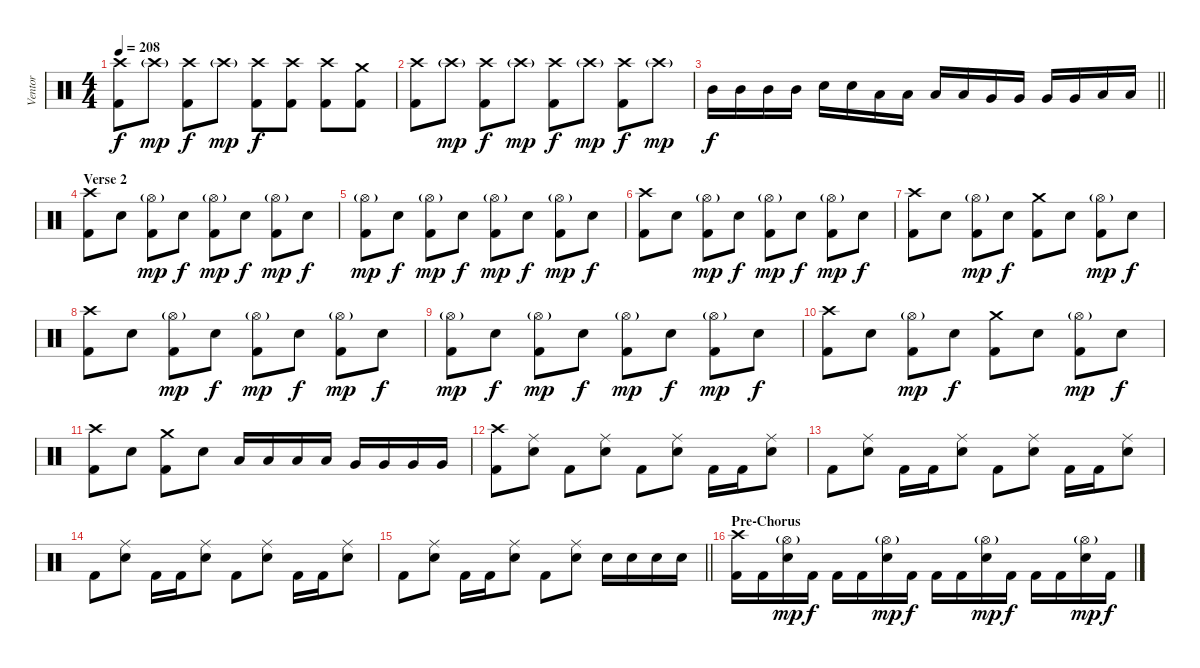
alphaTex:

\track ("Ventor" "Ventor") {instrument percussion}
\staff {score}
\articulation defaults
\ts (4 4)
\tempo 208
\clef neutral
\ks c
("Crash high (hit)" "Kick (hit) 2").8{dy f} "Crash high (hit)"{g}.8{dy mp} ("Crash high (hit)" "Kick (hit) 2").8{dy f} "Crash high (hit)"{g}.8{dy mp} ("Crash high (hit)" "Kick (hit) 2").8{dy f} ("Crash high (hit)" "Kick (hit) 2").8 ("Crash high (hit)" "Kick (hit) 2").8 ("Crash medium (hit)" "Kick (hit) 2").8 |
("Crash high (hit)" "Kick (hit) 2").8 "Crash high (hit)"{g}.8{dy mp} ("Crash high (hit)" "Kick (hit) 2").8{dy f} "Crash high (hit)"{g}.8{dy mp} ("Crash high (hit)" "Kick (hit) 2").8{dy f} "Crash high (hit)"{g}.8{dy mp} ("Crash high (hit)" "Kick (hit) 2").8{dy f} "Crash high (hit)"{g}.8{dy mp} |
\barLineRight lightlight "Mid Tom (hit)".16{dy f} "Mid Tom (hit)".16 "Mid Tom (hit)".16 "Mid Tom (hit)".16 "Electric Snare (hit)".16 "Electric Snare (hit)".16 "Low Tom (hit)".16 "Low Tom (hit)".16 "Low Tom (hit)".16 "Low Tom (hit)".16 "Very Low Tom (hit)".16 "Very Low Tom (hit)".16 "Very Low Tom (hit)".16 "Very Low Tom (hit)".16 "Low Floor Tom (hit)".16 "Low Floor Tom (hit)".16
|
\section ("" "Verse 2")
("Crash high (hit)" "Kick (hit) 2").8 "Electric Snare (hit)".8 ("Hi-Hat (open)"{g} "Kick (hit) 2").8{dy mp} "Electric Snare (hit)".8{dy f} ("Hi-Hat (open)"{g} "Kick (hit) 2").8{dy mp} "Electric Snare (hit)".8{dy f} ("Hi-Hat (open)"{g} "Kick (hit) 2").8{dy mp} "Electric Snare (hit)".8{dy f} |
("Hi-Hat (open)"{g} "Kick (hit) 2").8{dy mp} "Electric Snare (hit)".8{dy f} ("Hi-Hat (open)"{g} "Kick (hit) 2").8{dy mp} "Electric Snare (hit)".8{dy f} ("Hi-Hat (open)"{g} "Kick (hit) 2").8{dy mp} "Electric Snare (hit)".8{dy f} ("Hi-Hat (open)"{g} "Kick (hit) 2").8{dy mp} "Electric Snare (hit)".8{dy f} |
("Crash high (hit)" "Kick (hit) 2").8 "Electric Snare (hit)".8 ("Hi-Hat (open)"{g} "Kick (hit) 2").8{dy mp} "Electric Snare (hit)".8{dy f} ("Hi-Hat (open)"{g} "Kick (hit) 2").8{dy mp} "Electric Snare (hit)".8{dy f} ("Hi-Hat (open)"{g} "Kick (hit) 2").8{dy mp} "Electric Snare (hit)".8{dy f} |
("Crash high (hit)" "Kick (hit) 2").8 "Electric Snare (hit)".8 ("Hi-Hat (open)"{g} "Kick (hit) 2").8{dy mp} "Electric Snare (hit)".8{dy f} ("Crash medium (hit)" "Kick (hit) 2").8 "Electric Snare (hit)".8 ("Hi-Hat (open)"{g} "Kick (hit) 2").8{dy mp} "Electric Snare (hit)".8{dy f} |
("Crash high (hit)" "Kick (hit) 2").8 "Electric Snare (hit)".8 ("Hi-Hat (open)"{g} "Kick (hit) 2").8{dy mp} "Electric Snare (hit)".8{dy f} ("Hi-Hat (open)"{g} "Kick (hit) 2").8{dy mp} "Electric Snare (hit)".8{dy f} ("Hi-Hat (open)"{g} "Kick (hit) 2").8{dy mp} "Electric Snare (hit)".8{dy f} |
("Hi-Hat (open)"{g} "Kick (hit) 2").8{dy mp} "Electric Snare (hit)".8{dy f} ("Hi-Hat (open)"{g} "Kick (hit) 2").8{dy mp} "Electric Snare (hit)".8{dy f} ("Hi-Hat (open)"{g} "Kick (hit) 2").8{dy mp} "Electric Snare (hit)".8{dy f} ("Hi-Hat (open)"{g} "Kick (hit) 2").8{dy mp} "Electric Snare (hit)".8{dy f} |
("Crash high (hit)" "Kick (hit) 2").8 "Electric Snare (hit)".8 ("Hi-Hat (open)"{g} "Kick (hit) 2").8{dy mp} "Electric Snare (hit)".8{dy f} ("Crash medium (hit)" "Kick (hit) 2").8 "Electric Snare (hit)".8 ("Hi-Hat (open)"{g} "Kick (hit) 2").8{dy mp} "Electric Snare (hit)".8{dy f} |
("Crash high (hit)" "Kick (hit) 2").8 "Electric Snare (hit)".8 ("Crash medium (hit)" "Kick (hit) 2").8 "Electric Snare (hit)".8 "Low Tom (hit)".16 "Low Tom (hit)".16 "Low Tom (hit)".16 "Low Tom (hit)".16 "Very Low Tom (hit)".16 "Very Low Tom (hit)".16 "Very Low Tom (hit)".16 "Very Low Tom (hit)".16 |
("Crash high (hit)" "Kick (hit) 2").8 ("Ride (middle)" "Electric Snare (hit)").8 "Kick (hit) 2".8 ("Ride (middle)" "Electric Snare (hit)").8 "Kick (hit) 2".8 ("Ride (middle)" "Electric Snare (hit)").8 "Kick (hit) 2".16 "Kick (hit) 2".16 ("Ride (middle)" "Electric Snare (hit)").8 |
"Kick (hit) 2".8 ("Ride (middle)" "Electric Snare (hit)").8 "Kick (hit) 2".16 "Kick (hit) 2".16 ("Ride (middle)" "Electric Snare (hit)").8 "Kick (hit) 2".8 ("Ride (middle)" "Electric Snare (hit)").8 "Kick (hit) 2".16 "Kick (hit) 2".16 ("Ride (middle)" "Electric Snare (hit)").8 |
"Kick (hit) 2".8 ("Ride (middle)" "Electric Snare (hit)").8 "Kick (hit) 2".16 "Kick (hit) 2".16 ("Ride (middle)" "Electric Snare (hit)").8 "Kick (hit) 2".8 ("Ride (middle)" "Electric Snare (hit)").8 "Kick (hit) 2".16 "Kick (hit) 2".16 ("Ride (middle)" "Electric Snare (hit)").8 |
\barLineRight lightlight "Kick (hit) 2".8
("Ride (middle)" "Electric Snare (hit)").8 "Kick (hit) 2".16 "Kick (hit) 2".16 ("Ride (middle)" "Electric Snare (hit)").8 "Kick (hit) 2".8 ("Ride (middle)" "Electric Snare (hit)").8 "Electric Snare (hit)".16 "Electric Snare (hit)".16 "Electric Snare (hit)".16 "Electric Snare (hit)".16 |
\section ("" "Pre-Chorus")
("Crash high (hit)" "Kick (hit) 2").16 "Kick (hit) 2".16 ("Hi-Hat (open)"{g} "Electric Snare (hit)").16{dy mp} "Kick (hit) 2".16{dy f} "Kick (hit) 2".16 "Kick (hit) 2".16 ("Hi-Hat (open)"{g} "Electric Snare (hit)").16{dy mp} "Kick (hit) 2".16{dy f} "Kick (hit) 2".16 "Kick (hit) 2".16 ("Hi-Hat (open)"{g} "Electric Snare (hit)").16{dy mp} "Kick (hit) 2".16{dy f} "Kick (hit) 2".16 "Kick (hit) 2".16 ("Hi-Hat (open)"{g} "Electric Snare (hit)").16{dy mp} "Kick (hit) 2".16{dy f}
